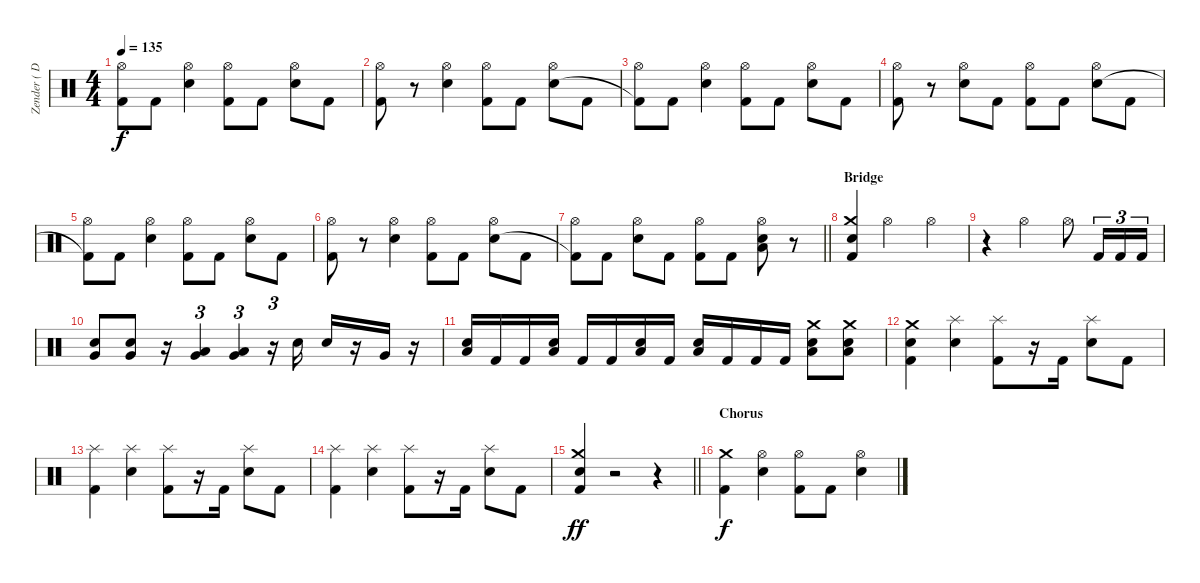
\track ("Zender ( Drums )" "Zender ( D") {instrument percussion}
\staff {score}
\articulation defaults
\ts (4 4)
\tempo 135
\clef neutral
\ks c
("Hi-Hat (open)" "Kick (hit) 2"{t}).8{dy f} "Kick (hit) 2".8 ("Hi-Hat (open)" "Snare (hit) 2").4 ("Hi-Hat (open)" "Kick (hit) 2").8 "Kick (hit) 2".8 ("Hi-Hat (open)" "Snare (hit) 2").8 "Kick (hit) 2".8 |
("Hi-Hat (open)" "Kick (hit) 2").8 r.8 ("Hi-Hat (open)" "Snare (hit) 2").4 ("Hi-Hat (open)" "Kick (hit) 2").8 "Kick (hit) 2".8 ("Hi-Hat (open)" "Snare (hit) 2").8 "Kick (hit) 2".8 |
("Hi-Hat (open)" "Kick (hit) 2"{t}).8 "Kick (hit) 2".8 ("Hi-Hat (open)" "Snare (hit) 2").4 ("Hi-Hat (open)" "Kick (hit) 2").8 "Kick (hit) 2".8 ("Hi-Hat (open)" "Snare (hit) 2").8 "Kick (hit) 2".8 |
("Hi-Hat (open)" "Kick (hit) 2").8 r.8 ("Hi-Hat (open)" "Snare (hit) 2").8 "Kick (hit) 2".8 ("Hi-Hat (open)" "Kick (hit) 2").8 "Kick (hit) 2".8 ("Hi-Hat (open)" "Snare (hit) 2").8 "Kick (hit) 2".8 |
("Hi-Hat (open)" "Kick (hit) 2"{t}).8 "Kick (hit) 2".8 ("Hi-Hat (open)" "Snare (hit) 2").4 ("Hi-Hat (open)" "Kick (hit) 2").8 "Kick (hit) 2".8 ("Hi-Hat (open)" "Snare (hit) 2").8 "Kick (hit) 2".8 |
("Hi-Hat (open)" "Kick (hit) 2").8 r.8 ("Hi-Hat (open)" "Snare (hit) 2").4 ("Hi-Hat (open)" "Kick (hit) 2").8 "Kick (hit) 2".8 ("Hi-Hat (open)" "Snare (hit) 2").8 "Kick (hit) 2".8 |
\barLineRight lightlight
("Hi-Hat (open)" "Kick (hit) 2"{t}).8 "Kick (hit) 2".8 ("Hi-Hat (open)" "Snare (hit) 2").8 "Kick (hit) 2".8 ("Hi-Hat (open)" "Kick (hit) 2").8 "Kick (hit) 2".8 ("Hi-Hat (open)" "Low Tom (hit)" "Snare (hit) 2").8 r.8 |
\section ("" "Bridge")
("Crash medium (hit)" "Electric Snare (hit)" "Kick (hit) 2").4 "Hi-Hat (open)".2 "Hi-Hat (open)".4 |
r.4 "Hi-Hat (open)".2 "Hi-Hat (open)".8 "Kick (hit) 2".16{tu (3 2)} "Kick (hit) 2".16{tu (3 2)} "Kick (hit) 2".16{tu (3 2)} |
("Very Low Tom (hit)" "Electric Snare (hit)").8 ("Very Low Tom (hit)" "Electric Snare (hit)").8 r.16 ("Low Floor Tom (hit)" "Very Low Tom (hit)").4{tu (3 2)} ("Low Floor Tom (hit)" "Very Low Tom (hit)").4{tu (3 2)} r.16{tu (3 2)} "Snare (hit) 2".16 "Snare (hit) 2".16 r.16 "Very Low Tom (hit)".16 r.16 |
("Low Tom (hit)" "Snare (hit) 2").16 "Kick (hit) 2".16 "Kick (hit) 2".16 ("Low Tom (hit)" "Snare (hit) 2").16 "Kick (hit) 2".16 "Kick (hit) 2".16 ("Low Tom (hit)" "Snare (hit) 2").16 "Kick (hit) 2".16 ("Low Tom (hit)" "Snare (hit) 2").16 "Kick (hit) 2".16 "Kick (hit) 2".16 "Kick (hit) 2".16 ("Crash medium (hit)" "Low Tom (hit)" "Snare (hit) 2").8 ("Crash medium (hit)" "Low Tom (hit)" "Snare (hit) 2").8 |
("Crash medium (hit)" "Snare (hit) 2" "Kick (hit) 2").4 ("Splash (hit)" "Electric Snare (hit)").4 ("Splash (hit)" "Kick (hit) 2").8 r.16 "Kick (hit) 2".16 ("Splash (hit)" "Electric Snare (hit)").8 "Kick (hit) 2".8 |
("Splash (hit)" "Kick (hit) 2").4 ("Splash (hit)" "Electric Snare (hit)").4 ("Splash (hit)" "Kick (hit) 2").8 r.16 "Kick (hit) 2".16 ("Splash (hit)" "Electric Snare (hit)").8 "Kick (hit) 2".8 |
("Splash (hit)" "Kick (hit) 2").4 ("Splash (hit)" "Electric Snare (hit)").4 ("Splash (hit)" "Kick (hit) 2").8 r.16 "Kick (hit) 2".16 ("Splash (hit)" "Electric Snare (hit)").8 "Kick (hit) 2".8 |
\barLineRight lightlight
("Crash medium (hit)" "Electric Snare (hit)" "Kick (hit) 2").4{dy ff} r.2 r.4 |
\section ("" "Chorus")
("Crash medium (hit)" "Kick (hit) 2").4{dy f} ("Hi-Hat (open)" "Electric Snare (hit)").4 ("Hi-Hat (open)" "Kick (hit) 2").8 "Kick (hit) 2".8 ("Hi-Hat (open)" "Electric Snare (hit)").4
